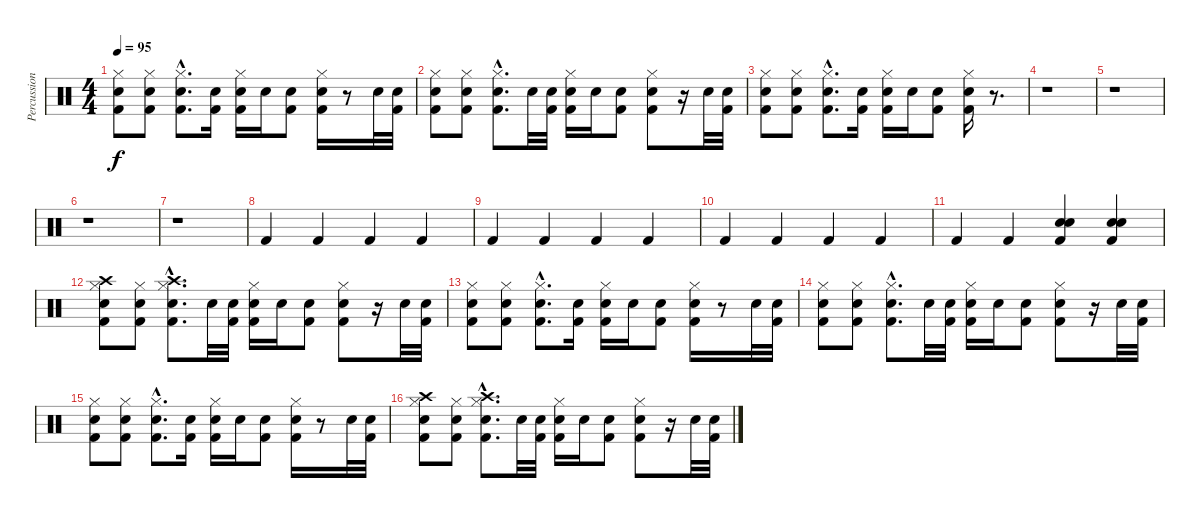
\track ("Percussions" "Percussion") {instrument percussion}
\staff {score}
\articulation defaults
\ts (4 4)
\tempo 95
\clef neutral
\ks c
("Kick (hit) 2" "Snare (hit) 2" "Hi-Hat (closed)").8{dy f} ("Kick (hit) 2" "Snare (hit) 2" "Hi-Hat (closed)").8 ("Kick (hit) 2"{hac} "Snare (hit) 2"{hac} "Hi-Hat (closed)"{hac}).8{d} ("Kick (hit) 2" "Snare (hit) 2").16 ("Kick (hit) 2" "Snare (hit) 2" "Hi-Hat (closed)").16 "Snare (hit) 2".16 ("Kick (hit) 2" "Snare (hit) 2").8 ("Kick (hit) 2" "Snare (hit) 2" "Hi-Hat (closed)").16 r.8 "Snare (hit) 2".32 ("Kick (hit) 2" "Snare (hit) 2").32 |
("Kick (hit) 2" "Snare (hit) 2" "Hi-Hat (closed)").8 ("Kick (hit) 2" "Snare (hit) 2" "Hi-Hat (closed)").8 ("Kick (hit) 2"{hac} "Snare (hit) 2"{hac} "Hi-Hat (closed)"{hac}).8{d} "Snare (hit) 2".32 ("Kick (hit) 2" "Snare (hit) 2").32 ("Kick (hit) 2" "Snare (hit) 2" "Hi-Hat (closed)").16 "Snare (hit) 2".16 ("Kick (hit) 2" "Snare (hit) 2").8 ("Kick (hit) 2" "Snare (hit) 2" "Hi-Hat (closed)").8 r.16 "Snare (hit) 2".32 ("Kick (hit) 2" "Snare (hit) 2").32 |
("Kick (hit) 2" "Snare (hit) 2" "Hi-Hat (closed)").8 ("Kick (hit) 2" "Snare (hit) 2" "Hi-Hat (closed)").8 ("Kick (hit) 2"{hac} "Snare (hit) 2"{hac} "Hi-Hat (closed)"{hac}).8{d} ("Kick (hit) 2" "Snare (hit) 2").16 ("Kick (hit) 2" "Snare (hit) 2" "Hi-Hat (closed)").16 "Snare (hit) 2".16 ("Kick (hit) 2" "Snare (hit) 2").8 ("Kick (hit) 2" "Snare (hit) 2" "Hi-Hat (closed)").16 r.8{d} |
r.1 |
r.1 |
r.1 |
r.1 |
"Kick (hit) 2".4 "Kick (hit) 2".4 "Kick (hit) 2".4 "Kick (hit) 2".4 |
"Kick (hit) 2".4 "Kick (hit) 2".4 "Kick (hit) 2".4 "Kick (hit) 2".4 |
"Kick (hit) 2".4 "Kick (hit) 2".4 "Kick (hit) 2".4 "Kick (hit) 2".4 |
"Kick (hit) 2".4 "Kick (hit) 2".4 ("Kick (hit) 2" "Snare (hit) 2" "Snare (hit) 2").4 ("Kick (hit) 2" "Snare (hit) 2" "Snare (hit) 2").4 |
("Kick (hit) 2" "Snare (hit) 2" "Hi-Hat (closed)" "Crash high (hit)").8 ("Kick (hit) 2" "Snare (hit) 2" "Hi-Hat (closed)").8 ("Kick (hit) 2"{hac} "Snare (hit) 2"{hac} "Hi-Hat (closed)"{hac} "Crash high (hit)"{hac}).8{d} "Snare (hit) 2".32 ("Kick (hit) 2" "Snare (hit) 2").32 ("Kick (hit) 2" "Snare (hit) 2" "Hi-Hat (closed)").16 "Snare (hit) 2".16 ("Kick (hit) 2" "Snare (hit) 2").8 ("Kick (hit) 2" "Snare (hit) 2" "Hi-Hat (closed)").8 r.16 "Snare (hit) 2".32 ("Kick (hit) 2" "Snare (hit) 2").32 |
("Kick (hit) 2" "Snare (hit) 2" "Hi-Hat (closed)").8 ("Kick (hit) 2" "Snare (hit) 2" "Hi-Hat (closed)").8 ("Kick (hit) 2"{hac} "Snare (hit) 2"{hac} "Hi-Hat (closed)"{hac}).8{d} ("Kick (hit) 2" "Snare (hit) 2").16 ("Kick (hit) 2" "Snare (hit) 2" "Hi-Hat (closed)").16 "Snare (hit) 2".16 ("Kick (hit) 2" "Snare (hit) 2").8 ("Kick (hit) 2" "Snare (hit) 2" "Hi-Hat (closed)").16 r.8 "Snare (hit) 2".32 ("Kick (hit) 2" "Snare (hit) 2").32 |
("Kick (hit) 2" "Snare (hit) 2" "Hi-Hat (closed)").8 ("Kick (hit) 2" "Snare (hit) 2" "Hi-Hat (closed)").8 ("Kick (hit) 2"{hac} "Snare (hit) 2"{hac} "Hi-Hat (closed)"{hac}).8{d} "Snare (hit) 2".32 ("Kick (hit) 2" "Snare (hit) 2").32 ("Kick (hit) 2" "Snare (hit) 2" "Hi-Hat (closed)").16 "Snare (hit) 2".16 ("Kick (hit) 2" "Snare (hit) 2").8 ("Kick (hit) 2" "Snare (hit) 2" "Hi-Hat (closed)").8 r.16 "Snare (hit) 2".32 ("Kick (hit) 2" "Snare (hit) 2").32 |
("Kick (hit) 2" "Snare (hit) 2" "Hi-Hat (closed)").8 ("Kick (hit) 2" "Snare (hit) 2" "Hi-Hat (closed)").8 ("Kick (hit) 2"{hac} "Snare (hit) 2"{hac} "Hi-Hat (closed)"{hac}).8{d} ("Kick (hit) 2" "Snare (hit) 2").16 ("Kick (hit) 2" "Snare (hit) 2" "Hi-Hat (closed)").16 "Snare (hit) 2".16 ("Kick (hit) 2" "Snare (hit) 2").8 ("Kick (hit) 2" "Snare (hit) 2" "Hi-Hat (closed)").16 r.8 "Snare (hit) 2".32 ("Kick (hit) 2" "Snare (hit) 2").32 |
("Kick (hit) 2" "Snare (hit) 2" "Hi-Hat (closed)" "Crash high (hit)").8 ("Kick (hit) 2" "Snare (hit) 2" "Hi-Hat (closed)").8 ("Kick (hit) 2"{hac} "Snare (hit) 2"{hac} "Hi-Hat (closed)"{hac} "Crash high (hit)"{hac}).8{d} "Snare (hit) 2".32 ("Kick (hit) 2" "Snare (hit) 2").32 ("Kick (hit) 2" "Snare (hit) 2" "Hi-Hat (closed)").16 "Snare (hit) 2".16 ("Kick (hit) 2" "Snare (hit) 2").8 ("Kick (hit) 2" "Snare (hit) 2" "Hi-Hat (closed)").8 r.16 "Snare (hit) 2".32 ("Kick (hit) 2" "Snare (hit) 2").32
